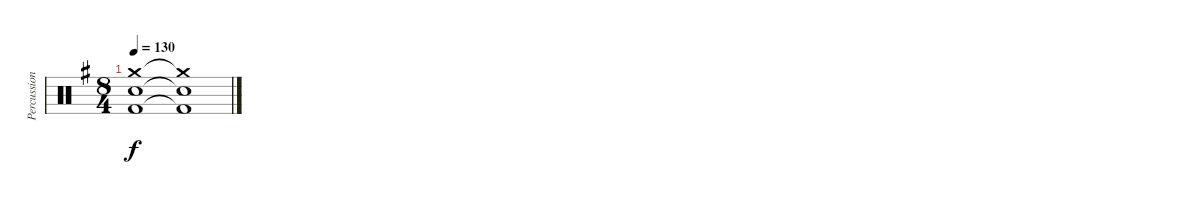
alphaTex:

\track ("Percussion" "Percussion") {instrument percussion}
\staff {score}
\articulation defaults
\ts (8 4)
\tempo 130
\clef neutral
\ks g
("Crash medium (hit)" "Electric Snare (hit)" "Kick (hit) 2").1{dy f} ("Crash medium (hit)"{t} "Electric Snare (hit)"{t} "Kick (hit) 2"{t}).1
